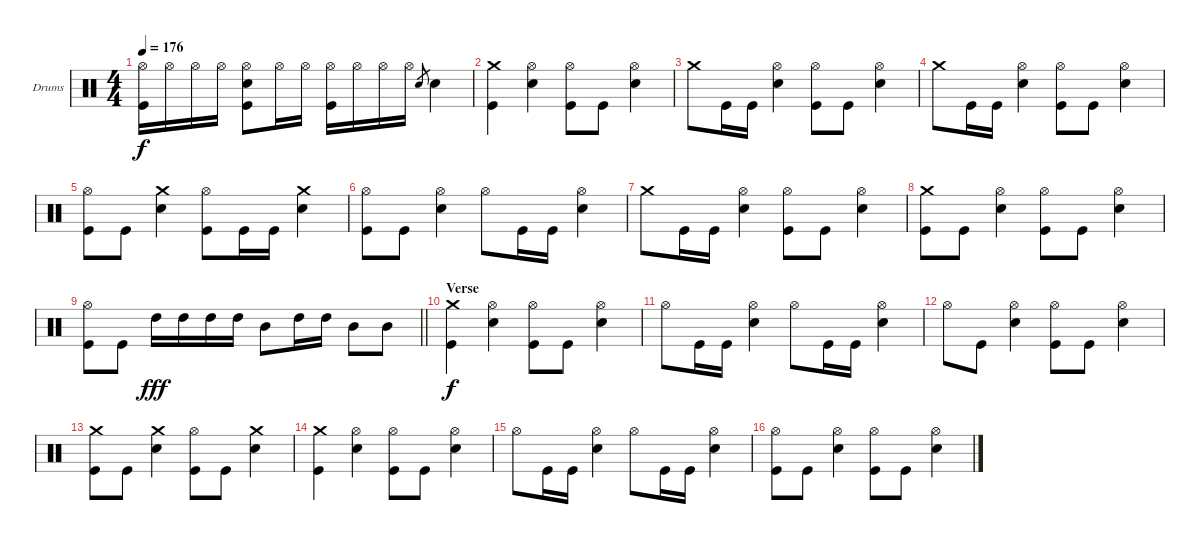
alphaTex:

\bracketExtendMode groupsimilarinstruments
\firstSystemTrackNameOrientation horizontal
\otherSystemsTrackNameOrientation horizontal
\track ("Drums" "Drums") {instrument percussion}
\staff {score}
\articulation defaults
\ts (4 4)
\tempo 176
\clef neutral
\ks c
("Kick (hit)" "Hi-Hat (open)").16{dy f} "Hi-Hat (open)".16 "Hi-Hat (open)".16 "Hi-Hat (open)".16 ("Hi-Hat (open)" "Snare (hit) 2" "Kick (hit)").8 "Hi-Hat (open)".16 "Hi-Hat (open)".16 ("Hi-Hat (open)" "Kick (hit)").16 "Hi-Hat (open)".16 "Hi-Hat (open)".16 "Hi-Hat (open)".16 "Snare (hit) 2".8{gr} "Snare (hit) 2".4 |
("Crash medium (hit)" "Kick (hit)").4 ("Hi-Hat (open)" "Snare (hit) 2").4 ("Hi-Hat (open)" "Kick (hit)").8 "Kick (hit)".8 ("Hi-Hat (open)" "Snare (hit) 2").4 |
"Crash medium (hit)".8 "Kick (hit)".16 "Kick (hit)".16 ("Hi-Hat (open)" "Snare (hit) 2").4 ("Hi-Hat (open)" "Kick (hit)").8 "Kick (hit)".8 ("Hi-Hat (open)" "Snare (hit) 2").4 |
"Crash medium (hit)".8 "Kick (hit)".16 "Kick (hit)".16 ("Hi-Hat (open)" "Snare (hit) 2").4 ("Hi-Hat (open)" "Kick (hit)").8 "Kick (hit)".8 ("Hi-Hat (open)" "Snare (hit) 2").4 |
("Hi-Hat (open)" "Kick (hit)").8 "Kick (hit)".8 ("Crash medium (hit)" "Snare (hit) 2").4 ("Hi-Hat (open)" "Kick (hit)").8 "Kick (hit)".16 "Kick (hit)".16 ("Crash medium (hit)" "Snare (hit) 2").4 |
("Hi-Hat (open)" "Kick (hit)").8 "Kick (hit)".8 ("Hi-Hat (open)" "Snare (hit) 2").4 "Hi-Hat (open)".8 "Kick (hit)".16 "Kick (hit)".16 ("Hi-Hat (open)" "Snare (hit) 2").4 |
"Crash medium (hit)".8 "Kick (hit)".16 "Kick (hit)".16 ("Hi-Hat (open)" "Snare (hit) 2").4 ("Hi-Hat (open)" "Kick (hit)").8 "Kick (hit)".8 ("Hi-Hat (open)" "Snare (hit) 2").4 |
("Crash medium (hit)" "Kick (hit)").8 "Kick (hit)".8 ("Hi-Hat (open)" "Snare (hit) 2").4 ("Hi-Hat (open)" "Kick (hit)").8 "Kick (hit)".8 ("Hi-Hat (open)" "Snare (hit) 2").4 |
\barLineRight lightlight
("Hi-Hat (open)" "Kick (hit)").8 "Kick (hit)".8 "High Tom (hit)".16{dy fff} "High Tom (hit)".16 "High Tom (hit)".16 "High Tom (hit)".16 "Mid Tom (hit)".8 "High Tom (hit)".16 "High Tom (hit)".16 "Mid Tom (hit)".8 "Mid Tom (hit)".8 |
\section ("" "Verse")
("Crash medium (hit)" "Kick (hit)").4{dy f} ("Hi-Hat (open)" "Snare (hit) 2").4 ("Hi-Hat (open)" "Kick (hit)").8 "Kick (hit)".8 ("Hi-Hat (open)" "Snare (hit) 2").4 |
"Hi-Hat (open)".8 "Kick (hit)".16 "Kick (hit)".16 ("Hi-Hat (open)" "Snare (hit) 2").4 "Hi-Hat (open)".8 "Kick (hit)".16 "Kick (hit)".16 ("Hi-Hat (open)" "Snare (hit) 2").4 |
"Hi-Hat (open)".8 "Kick (hit)".8 ("Hi-Hat (open)" "Snare (hit) 2").4 ("Hi-Hat (open)" "Kick (hit)").8 "Kick (hit)".8 ("Hi-Hat (open)" "Snare (hit) 2").4 |
("Crash medium (hit)" "Kick (hit)").8 "Kick (hit)".8 ("Crash medium (hit)" "Snare (hit) 2").4 ("Hi-Hat (open)" "Kick (hit)").8 "Kick (hit)".8 ("Crash medium (hit)" "Snare (hit) 2").4 |
("Crash medium (hit)" "Kick (hit)").4 ("Hi-Hat (open)" "Snare (hit) 2").4 ("Hi-Hat (open)" "Kick (hit)").8 "Kick (hit)".8 ("Hi-Hat (open)" "Snare (hit) 2").4 |
"Hi-Hat (open)".8 "Kick (hit)".16 "Kick (hit)".16 ("Hi-Hat (open)" "Snare (hit) 2").4 "Hi-Hat (open)".8 "Kick (hit)".16 "Kick (hit)".16 ("Hi-Hat (open)" "Snare (hit) 2").4 |
("Hi-Hat (open)" "Kick (hit)").8 "Kick (hit)".8 ("Hi-Hat (open)" "Snare (hit) 2").4 ("Hi-Hat (open)" "Kick (hit)").8 "Kick (hit)".8 ("Hi-Hat (open)" "Snare (hit) 2").4
